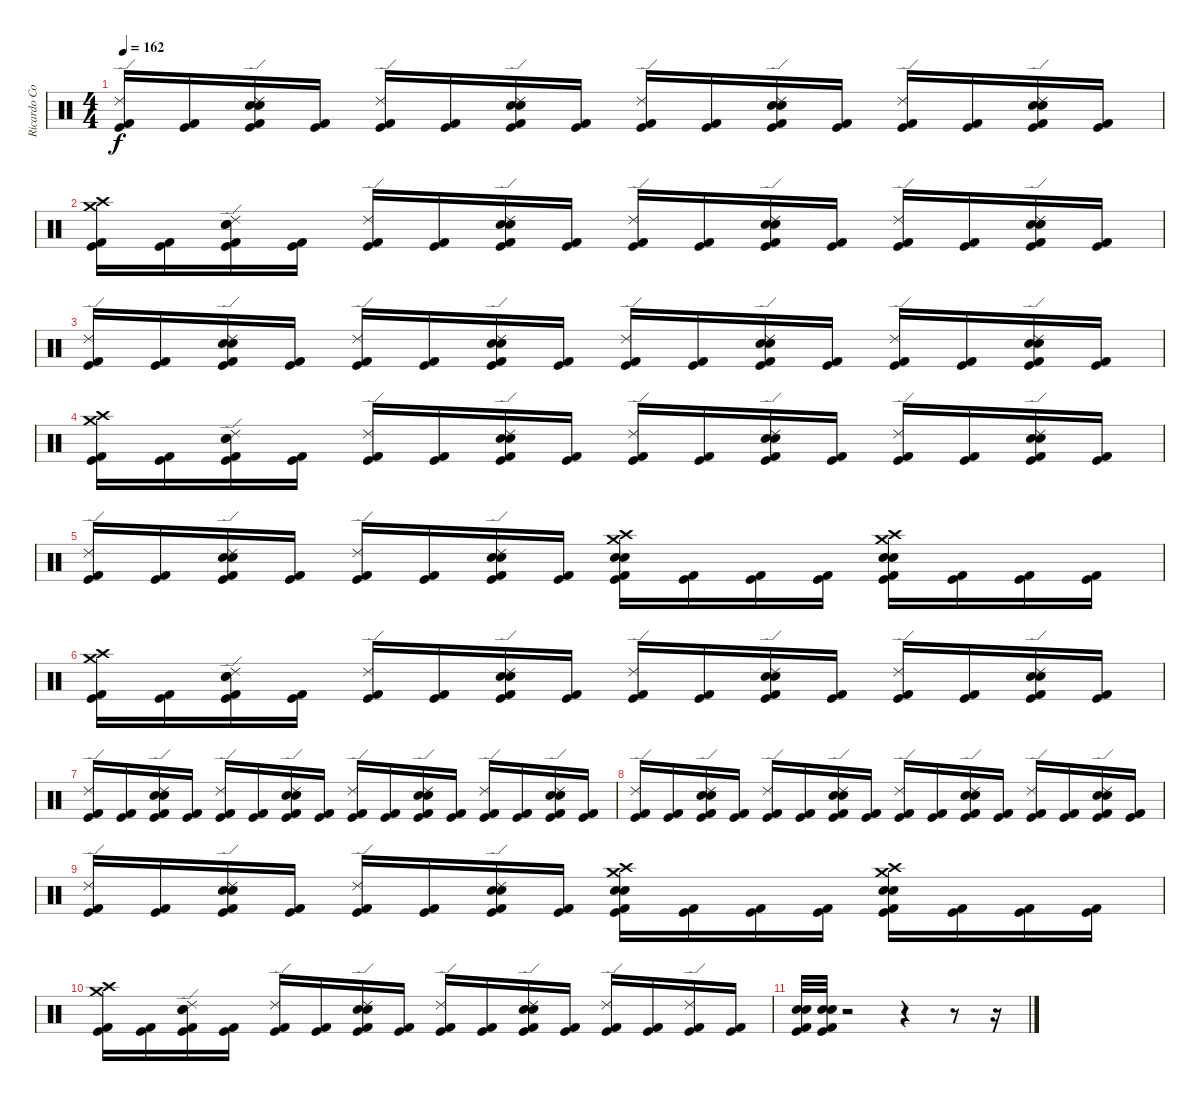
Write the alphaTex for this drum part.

\track ("Ricardo Confessori" "Ricardo Co") {instrument percussion}
\staff {score}
\articulation defaults
\ts (4 4)
\tempo 162
\clef neutral
\ks c
("Ride (edge) 2" "Kick (hit) 2" "Kick (hit)").16{dy f} ("Kick (hit) 2" "Kick (hit)").16 ("Ride (edge) 2" "Snare (hit) 2" "Electric Snare (hit)" "Kick (hit) 2" "Kick (hit)").16 ("Kick (hit) 2" "Kick (hit)").16 ("Ride (edge) 2" "Kick (hit) 2" "Kick (hit)").16 ("Kick (hit) 2" "Kick (hit)").16 ("Ride (edge) 2" "Electric Snare (hit)" "Snare (hit) 2" "Kick (hit) 2" "Kick (hit)").16 ("Kick (hit) 2" "Kick (hit)").16 ("Ride (edge) 2" "Kick (hit) 2" "Kick (hit)").16 ("Kick (hit) 2" "Kick (hit)").16 ("Ride (edge) 2" "Snare (hit) 2" "Electric Snare (hit)" "Kick (hit) 2" "Kick (hit)").16 ("Kick (hit) 2" "Kick (hit)").16 ("Ride (edge) 2" "Kick (hit) 2" "Kick (hit)").16 ("Kick (hit) 2" "Kick (hit)").16 ("Ride (edge) 2" "Electric Snare (hit)" "Snare (hit) 2" "Kick (hit) 2" "Kick (hit)").16 ("Kick (hit) 2" "Kick (hit)").16 |
("Crash high (hit)" "Crash medium (hit)" "Kick (hit) 2" "Kick (hit)").16 ("Kick (hit) 2" "Kick (hit)").16 ("Ride (edge) 2" "Snare (hit) 2" "Electric Snare (hit)" "Kick (hit) 2" "Kick (hit)").16 ("Kick (hit) 2" "Kick (hit)").16 ("Ride (edge) 2" "Kick (hit) 2" "Kick (hit)").16 ("Kick (hit) 2" "Kick (hit)").16 ("Ride (edge) 2" "Electric Snare (hit)" "Snare (hit) 2" "Kick (hit) 2" "Kick (hit)").16 ("Kick (hit) 2" "Kick (hit)").16 ("Ride (edge) 2" "Kick (hit) 2" "Kick (hit)").16 ("Kick (hit) 2" "Kick (hit)").16 ("Ride (edge) 2" "Snare (hit) 2" "Electric Snare (hit)" "Kick (hit) 2" "Kick (hit)").16 ("Kick (hit) 2" "Kick (hit)").16 ("Ride (edge) 2" "Kick (hit) 2" "Kick (hit)").16 ("Kick (hit) 2" "Kick (hit)").16 ("Snare (hit) 2" "Electric Snare (hit)" "Ride (edge) 2" "Kick (hit) 2" "Kick (hit)").16 ("Kick (hit) 2" "Kick (hit)").16 |
("Ride (edge) 2" "Kick (hit) 2" "Kick (hit)").16 ("Kick (hit) 2" "Kick (hit)").16 ("Ride (edge) 2" "Snare (hit) 2" "Electric Snare (hit)" "Kick (hit) 2" "Kick (hit)").16 ("Kick (hit) 2" "Kick (hit)").16 ("Ride (edge) 2" "Kick (hit) 2" "Kick (hit)").16 ("Kick (hit) 2" "Kick (hit)").16 ("Ride (edge) 2" "Electric Snare (hit)" "Snare (hit) 2" "Kick (hit) 2" "Kick (hit)").16 ("Kick (hit) 2" "Kick (hit)").16 ("Ride (edge) 2" "Kick (hit) 2" "Kick (hit)").16 ("Kick (hit) 2" "Kick (hit)").16 ("Ride (edge) 2" "Snare (hit) 2" "Electric Snare (hit)" "Kick (hit) 2" "Kick (hit)").16 ("Kick (hit) 2" "Kick (hit)").16 ("Ride (edge) 2" "Kick (hit) 2" "Kick (hit)").16 ("Kick (hit) 2" "Kick (hit)").16 ("Ride (edge) 2" "Electric Snare (hit)" "Snare (hit) 2" "Kick (hit) 2" "Kick (hit)").16 ("Kick (hit) 2" "Kick (hit)").16 |
("Crash high (hit)" "Crash medium (hit)" "Kick (hit) 2" "Kick (hit)").16 ("Kick (hit) 2" "Kick (hit)").16 ("Ride (edge) 2" "Snare (hit) 2" "Electric Snare (hit)" "Kick (hit) 2" "Kick (hit)").16 ("Kick (hit) 2" "Kick (hit)").16 ("Ride (edge) 2" "Kick (hit) 2" "Kick (hit)").16 ("Kick (hit) 2" "Kick (hit)").16 ("Ride (edge) 2" "Electric Snare (hit)" "Snare (hit) 2" "Kick (hit) 2" "Kick (hit)").16 ("Kick (hit) 2" "Kick (hit)").16 ("Ride (edge) 2" "Kick (hit) 2" "Kick (hit)").16 ("Kick (hit) 2" "Kick (hit)").16 ("Ride (edge) 2" "Snare (hit) 2" "Electric Snare (hit)" "Kick (hit) 2" "Kick (hit)").16 ("Kick (hit) 2" "Kick (hit)").16 ("Ride (edge) 2" "Kick (hit) 2" "Kick (hit)").16 ("Kick (hit) 2" "Kick (hit)").16 ("Ride (edge) 2" "Electric Snare (hit)" "Snare (hit) 2" "Kick (hit) 2" "Kick (hit)").16 ("Kick (hit) 2" "Kick (hit)").16 |
("Ride (edge) 2" "Kick (hit) 2" "Kick (hit)").16 ("Kick (hit) 2" "Kick (hit)").16 ("Ride (edge) 2" "Snare (hit) 2" "Electric Snare (hit)" "Kick (hit) 2" "Kick (hit)").16 ("Kick (hit) 2" "Kick (hit)").16 ("Ride (edge) 2" "Kick (hit) 2" "Kick (hit)").16 ("Kick (hit) 2" "Kick (hit)").16 ("Ride (edge) 2" "Electric Snare (hit)" "Snare (hit) 2" "Kick (hit) 2" "Kick (hit)").16 ("Kick (hit) 2" "Kick (hit)").16 ("Crash high (hit)" "Electric Snare (hit)" "Snare (hit) 2" "Crash medium (hit)" "Kick (hit) 2" "Kick (hit)").16 ("Kick (hit) 2" "Kick (hit)").16 ("Kick (hit) 2" "Kick (hit)").16 ("Kick (hit) 2" "Kick (hit)").16 ("Crash high (hit)" "Electric Snare (hit)" "Snare (hit) 2" "Crash medium (hit)" "Kick (hit) 2" "Kick (hit)").16 ("Kick (hit) 2" "Kick (hit)").16 ("Kick (hit) 2" "Kick (hit)").16 ("Kick (hit) 2" "Kick (hit)").16 |
("Crash high (hit)" "Crash medium (hit)" "Kick (hit) 2" "Kick (hit)").16 ("Kick (hit) 2" "Kick (hit)").16 ("Ride (edge) 2" "Electric Snare (hit)" "Snare (hit) 2" "Kick (hit) 2" "Kick (hit)").16 ("Kick (hit) 2" "Kick (hit)").16 ("Ride (edge) 2" "Kick (hit) 2" "Kick (hit)").16 ("Kick (hit) 2" "Kick (hit)").16 ("Electric Snare (hit)" "Snare (hit) 2" "Ride (edge) 2" "Kick (hit) 2" "Kick (hit)").16 ("Kick (hit) 2" "Kick (hit)").16 ("Ride (edge) 2" "Kick (hit) 2" "Kick (hit)").16 ("Kick (hit) 2" "Kick (hit)").16 ("Ride (edge) 2" "Snare (hit) 2" "Electric Snare (hit)" "Kick (hit) 2" "Kick (hit)").16 ("Kick (hit) 2" "Kick (hit)").16 ("Ride (edge) 2" "Kick (hit) 2" "Kick (hit)").16 ("Kick (hit) 2" "Kick (hit)").16 ("Ride (edge) 2" "Electric Snare (hit)" "Snare (hit) 2" "Kick (hit) 2" "Kick (hit)").16 ("Kick (hit) 2" "Kick (hit)").16 |
("Ride (edge) 2" "Kick (hit) 2" "Kick (hit)").16 ("Kick (hit) 2" "Kick (hit)").16 ("Ride (edge) 2" "Snare (hit) 2" "Electric Snare (hit)" "Kick (hit) 2" "Kick (hit)").16 ("Kick (hit) 2" "Kick (hit)").16 ("Ride (edge) 2" "Kick (hit) 2" "Kick (hit)").16 ("Kick (hit) 2" "Kick (hit)").16 ("Ride (edge) 2" "Electric Snare (hit)" "Snare (hit) 2" "Kick (hit) 2" "Kick (hit)").16 ("Kick (hit) 2" "Kick (hit)").16 ("Ride (edge) 2" "Kick (hit) 2" "Kick (hit)").16 ("Kick (hit) 2" "Kick (hit)").16 ("Ride (edge) 2" "Snare (hit) 2" "Electric Snare (hit)" "Kick (hit) 2" "Kick (hit)").16 ("Kick (hit) 2" "Kick (hit)").16 ("Ride (edge) 2" "Kick (hit) 2" "Kick (hit)").16 ("Kick (hit) 2" "Kick (hit)").16 ("Ride (edge) 2" "Electric Snare (hit)" "Snare (hit) 2" "Kick (hit) 2" "Kick (hit)").16 ("Kick (hit) 2" "Kick (hit)").16 |
("Ride (edge) 2" "Kick (hit) 2" "Kick (hit)").16 ("Kick (hit) 2" "Kick (hit)").16 ("Ride (edge) 2" "Snare (hit) 2" "Electric Snare (hit)" "Kick (hit) 2" "Kick (hit)").16 ("Kick (hit) 2" "Kick (hit)").16 ("Ride (edge) 2" "Kick (hit) 2" "Kick (hit)").16 ("Kick (hit) 2" "Kick (hit)").16 ("Ride (edge) 2" "Electric Snare (hit)" "Snare (hit) 2" "Kick (hit) 2" "Kick (hit)").16 ("Kick (hit) 2" "Kick (hit)").16 ("Ride (edge) 2" "Kick (hit) 2" "Kick (hit)").16 ("Kick (hit) 2" "Kick (hit)").16 ("Ride (edge) 2" "Snare (hit) 2" "Electric Snare (hit)" "Kick (hit) 2" "Kick (hit)").16 ("Kick (hit) 2" "Kick (hit)").16 ("Ride (edge) 2" "Kick (hit) 2" "Kick (hit)").16 ("Kick (hit) 2" "Kick (hit)").16 ("Ride (edge) 2" "Electric Snare (hit)" "Snare (hit) 2" "Kick (hit) 2" "Kick (hit)").16 ("Kick (hit) 2" "Kick (hit)").16 |
("Ride (edge) 2" "Kick (hit) 2" "Kick (hit)").16 ("Kick (hit) 2" "Kick (hit)").16 ("Ride (edge) 2" "Snare (hit) 2" "Electric Snare (hit)" "Kick (hit) 2" "Kick (hit)").16 ("Kick (hit) 2" "Kick (hit)").16 ("Ride (edge) 2" "Kick (hit) 2" "Kick (hit)").16 ("Kick (hit) 2" "Kick (hit)").16 ("Ride (edge) 2" "Electric Snare (hit)" "Snare (hit) 2" "Kick (hit) 2" "Kick (hit)").16 ("Kick (hit) 2" "Kick (hit)").16 ("Electric Snare (hit)" "Snare (hit) 2" "Crash high (hit)" "Crash medium (hit)" "Kick (hit) 2" "Kick (hit)").16 ("Kick (hit) 2" "Kick (hit)").16 ("Kick (hit) 2" "Kick (hit)").16 ("Kick (hit) 2" "Kick (hit)").16 ("Crash high (hit)" "Electric Snare (hit)" "Snare (hit) 2" "Crash medium (hit)" "Kick (hit) 2" "Kick (hit)").16 ("Kick (hit) 2" "Kick (hit)").16 ("Kick (hit) 2" "Kick (hit)").16 ("Kick (hit) 2" "Kick (hit)").16 |
("Crash high (hit)" "Crash medium (hit)" "Kick (hit) 2" "Kick (hit)").16 ("Kick (hit) 2" "Kick (hit)").16 ("Ride (edge) 2" "Snare (hit) 2" "Electric Snare (hit)" "Kick (hit) 2" "Kick (hit)").16 ("Kick (hit) 2" "Kick (hit)").16 ("Ride (edge) 2" "Kick (hit) 2" "Kick (hit)").16 ("Kick (hit) 2" "Kick (hit)").16 ("Ride (edge) 2" "Electric Snare (hit)" "Snare (hit) 2" "Kick (hit) 2" "Kick (hit)").16 ("Kick (hit) 2" "Kick (hit)").16 ("Ride (edge) 2" "Kick (hit) 2" "Kick (hit)").16 ("Kick (hit) 2" "Kick (hit)").16 ("Ride (edge) 2" "Snare (hit) 2" "Electric Snare (hit)" "Kick (hit) 2" "Kick (hit)").16 ("Kick (hit) 2" "Kick (hit)").16 ("Ride (edge) 2" "Kick (hit) 2" "Kick (hit)").16 ("Kick (hit) 2" "Kick (hit)").16 ("Ride (edge) 2" "Kick (hit) 2" "Kick (hit)").16 ("Kick (hit) 2" "Kick (hit)").16 |
("Electric Snare (hit)" "Kick (hit)" "Snare (hit) 2" "Kick (hit) 2").32 ("Electric Snare (hit)" "Snare (hit) 2" "Kick (hit)" "Kick (hit) 2").32 r.2 r.4 r.8 r.16
